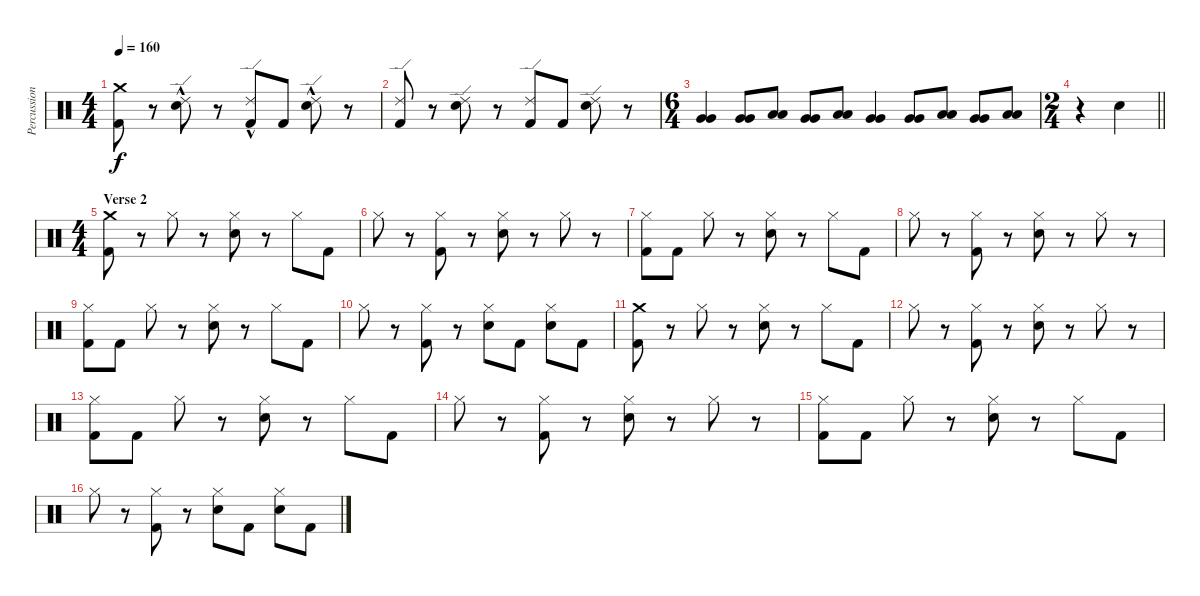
\track ("Percussion" "Percussion") {instrument percussion}
\staff {score}
\articulation defaults
\ts (4 4)
\tempo 160
\clef neutral
\ks c
("Crash medium (hit)" "Kick (hit) 2").8{dy f} r.8 ("Ride (edge) 2"{hac} "Electric Snare (hit)").8 r.8 ("Ride (edge) 2"{hac} "Kick (hit) 2").8 "Kick (hit) 2".8 ("Ride (edge) 2"{hac} "Electric Snare (hit)").8 r.8 |
("Ride (edge) 2" "Kick (hit) 2").8 r.8 ("Ride (edge) 2" "Electric Snare (hit)").8 r.8 ("Ride (edge) 2" "Kick (hit) 2").8 "Kick (hit) 2".8 ("Ride (edge) 2" "Electric Snare (hit)").8 r.8 |
\ts (6 4)
("Very Low Tom (hit)" "Very Low Tom (hit)").4 ("Very Low Tom (hit)" "Very Low Tom (hit)").8 ("Low Floor Tom (hit)" "Low Floor Tom (hit)").8 ("Very Low Tom (hit)" "Very Low Tom (hit)").8 ("Low Floor Tom (hit)" "Low Floor Tom (hit)").8 ("Very Low Tom (hit)" "Very Low Tom (hit)").4 ("Very Low Tom (hit)" "Very Low Tom (hit)").8 ("Low Floor Tom (hit)" "Low Floor Tom (hit)").8 ("Very Low Tom (hit)" "Very Low Tom (hit)").8 ("Low Tom (hit)" "Low Tom (hit)").8 |
\ts (2 4)
\barLineRight lightlight
r.4 "Electric Snare (hit)".4 |
\ts (4 4)
\section ("" "Verse 2")
("Crash medium (hit)" "Kick (hit) 2").8 r.8 "Hi-Hat (closed)".8 r.8 ("Hi-Hat (closed)" "Electric Snare (hit)").8 r.8 "Hi-Hat (closed)".8 "Kick (hit) 2".8 |
"Hi-Hat (closed)".8 r.8 ("Hi-Hat (closed)" "Kick (hit) 2").8 r.8 ("Hi-Hat (closed)" "Electric Snare (hit)").8 r.8 "Hi-Hat (closed)".8 r.8 |
("Hi-Hat (closed)" "Kick (hit) 2").8 "Kick (hit) 2".8 "Hi-Hat (closed)".8 r.8 ("Hi-Hat (closed)" "Electric Snare (hit)").8 r.8 "Hi-Hat (closed)".8 "Kick (hit) 2".8 |
"Hi-Hat (closed)".8 r.8 ("Hi-Hat (closed)" "Kick (hit) 2").8 r.8 ("Hi-Hat (closed)" "Electric Snare (hit)").8 r.8 "Hi-Hat (closed)".8 r.8 |
("Hi-Hat (closed)" "Kick (hit) 2").8 "Kick (hit) 2".8 "Hi-Hat (closed)".8 r.8 ("Hi-Hat (closed)" "Electric Snare (hit)").8 r.8 "Hi-Hat (closed)".8 "Kick (hit) 2".8 |
"Hi-Hat (closed)".8 r.8 ("Hi-Hat (closed)" "Kick (hit) 2").8 r.8 ("Hi-Hat (closed)" "Electric Snare (hit)").8 "Kick (hit) 2".8 ("Hi-Hat (closed)" "Electric Snare (hit)").8 "Kick (hit) 2".8 |
("Crash medium (hit)" "Kick (hit) 2").8 r.8 "Hi-Hat (closed)".8 r.8 ("Hi-Hat (closed)" "Electric Snare (hit)").8 r.8 "Hi-Hat (closed)".8 "Kick (hit) 2".8 |
"Hi-Hat (closed)".8 r.8 ("Hi-Hat (closed)" "Kick (hit) 2").8 r.8 ("Hi-Hat (closed)" "Electric Snare (hit)").8 r.8 "Hi-Hat (closed)".8 r.8 |
("Hi-Hat (closed)" "Kick (hit) 2").8 "Kick (hit) 2".8 "Hi-Hat (closed)".8 r.8 ("Hi-Hat (closed)" "Electric Snare (hit)").8 r.8 "Hi-Hat (closed)".8 "Kick (hit) 2".8 |
"Hi-Hat (closed)".8 r.8 ("Hi-Hat (closed)" "Kick (hit) 2").8 r.8 ("Hi-Hat (closed)" "Electric Snare (hit)").8 r.8 "Hi-Hat (closed)".8 r.8 |
("Hi-Hat (closed)" "Kick (hit) 2").8 "Kick (hit) 2".8 "Hi-Hat (closed)".8 r.8 ("Hi-Hat (closed)" "Electric Snare (hit)").8 r.8 "Hi-Hat (closed)".8 "Kick (hit) 2".8 |
"Hi-Hat (closed)".8 r.8 ("Hi-Hat (closed)" "Kick (hit) 2").8 r.8 ("Hi-Hat (closed)" "Electric Snare (hit)").8 "Kick (hit) 2".8 ("Hi-Hat (closed)" "Electric Snare (hit)").8 "Kick (hit) 2".8
